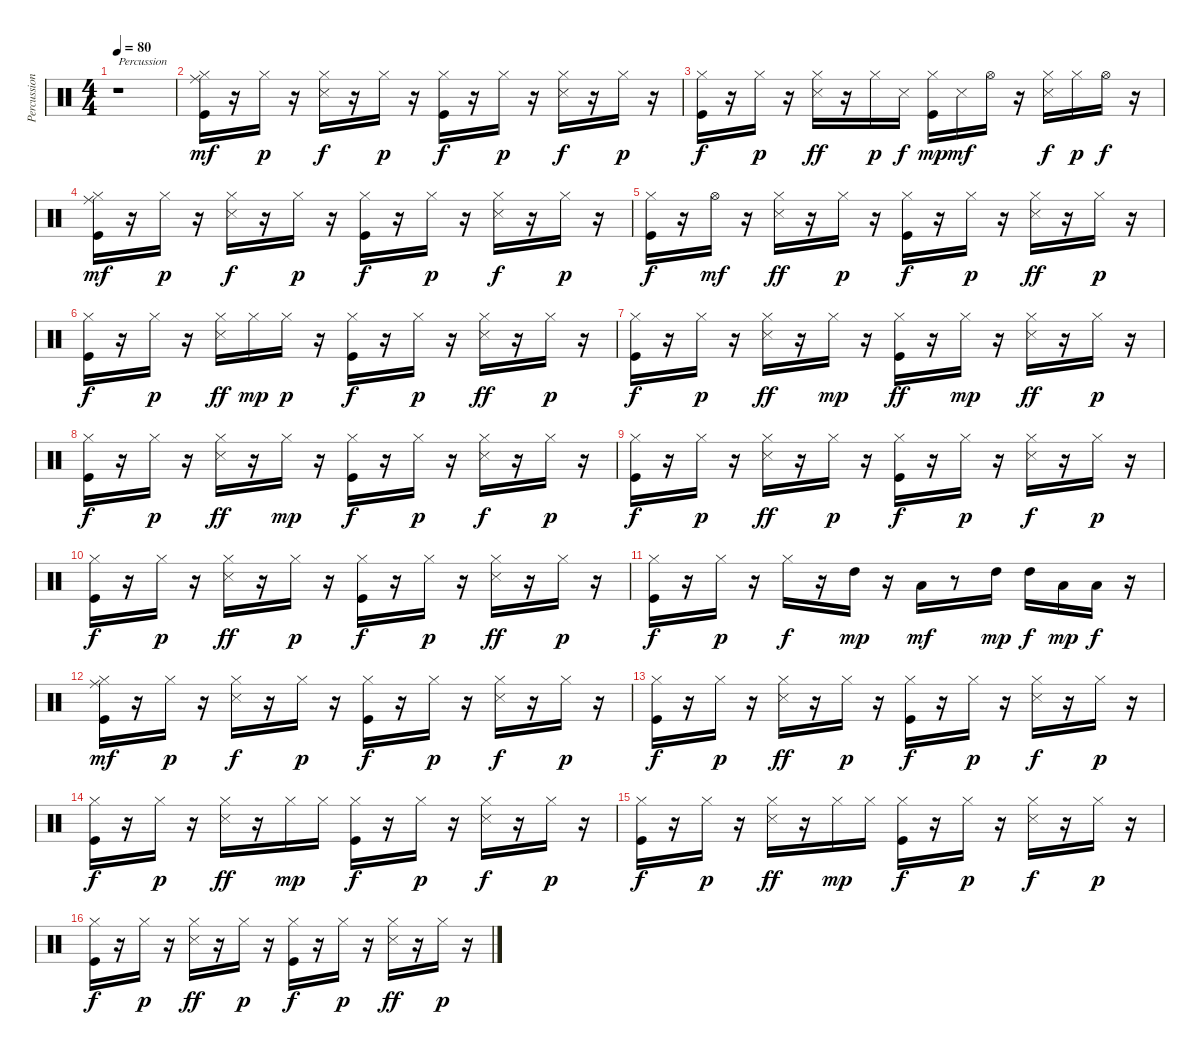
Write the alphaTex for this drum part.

\track ("Percussion" "Percussion") {instrument percussion}
\staff {score}
\articulation defaults
\ts (4 4)
\tempo 80
\clef neutral
\ks c
r.1{txt "Percussion" dy mf} |
("Kick (hit)" "Hi-Hat (closed)" "Ride (middle)").16 r.16 "Hi-Hat (closed)".16{dy p} r.16 ("Hi-Hat (closed)" "Snare (side stick) 3").16{dy f} r.16 "Hi-Hat (closed)".16{dy p} r.16 ("Kick (hit)" "Hi-Hat (closed)").16{dy f} r.16 "Hi-Hat (closed)".16{dy p} r.16 ("Hi-Hat (closed)" "Snare (side stick) 3").16{dy f} r.16 "Hi-Hat (closed)".16{dy p} r.16 |
("Kick (hit)" "Hi-Hat (closed)").16{dy f} r.16 "Hi-Hat (closed)".16{dy p} r.16 ("Hi-Hat (closed)" "Snare (side stick) 3").16{dy ff} r.16 "Hi-Hat (closed)".16{dy p} "Snare (side stick) 3".16{dy f} ("Kick (hit)" "Hi-Hat (closed)").16{dy mp} "Snare (side stick) 3".16{dy mf} "Hi-Hat (open)".16 r.16 ("Hi-Hat (closed)" "Snare (side stick) 3").16{dy f} "Hi-Hat (closed)".16{dy p} "Hi-Hat (open)".16{dy f} r.16 |
("Kick (hit)" "Hi-Hat (closed)" "Ride (middle)").16{dy mf} r.16 "Hi-Hat (closed)".16{dy p} r.16 ("Hi-Hat (closed)" "Snare (side stick) 3").16{dy f} r.16 "Hi-Hat (closed)".16{dy p} r.16 ("Kick (hit)" "Hi-Hat (closed)").16{dy f} r.16 "Hi-Hat (closed)".16{dy p} r.16 ("Hi-Hat (closed)" "Snare (side stick) 3").16{dy f} r.16 "Hi-Hat (closed)".16{dy p} r.16 |
("Kick (hit)" "Hi-Hat (closed)").16{dy f} r.16 "Hi-Hat (open)".16{dy mf} r.16 ("Hi-Hat (closed)" "Snare (side stick) 3").16{dy ff} r.16 "Hi-Hat (closed)".16{dy p} r.16 ("Kick (hit)" "Hi-Hat (closed)").16{dy f} r.16 "Hi-Hat (closed)".16{dy p} r.16 ("Hi-Hat (closed)" "Snare (side stick) 3").16{dy ff} r.16 "Hi-Hat (closed)".16{dy p} r.16 |
("Kick (hit)" "Hi-Hat (closed)").16{dy f} r.16 "Hi-Hat (closed)".16{dy p} r.16 ("Hi-Hat (closed)" "Snare (side stick) 3").16{dy ff} "Hi-Hat (closed)".16{dy mp} "Hi-Hat (closed)".16{dy p} r.16 ("Kick (hit)" "Hi-Hat (closed)").16{dy f} r.16 "Hi-Hat (closed)".16{dy p} r.16 ("Hi-Hat (closed)" "Snare (side stick) 3").16{dy ff} r.16 "Hi-Hat (closed)".16{dy p} r.16 |
("Kick (hit)" "Hi-Hat (closed)").16{dy f} r.16 "Hi-Hat (closed)".16{dy p} r.16 ("Hi-Hat (closed)" "Snare (side stick) 3").16{dy ff} r.16 "Hi-Hat (closed)".16{dy mp} r.16 ("Kick (hit)" "Hi-Hat (closed)").16{dy ff} r.16 "Hi-Hat (closed)".16{dy mp} r.16 ("Hi-Hat (closed)" "Snare (side stick) 3").16{dy ff} r.16 "Hi-Hat (closed)".16{dy p} r.16 |
("Kick (hit)" "Hi-Hat (closed)").16{dy f} r.16 "Hi-Hat (closed)".16{dy p} r.16 ("Hi-Hat (closed)" "Snare (side stick) 3").16{dy ff} r.16 "Hi-Hat (closed)".16{dy mp} r.16 ("Kick (hit)" "Hi-Hat (closed)").16{dy f} r.16 "Hi-Hat (closed)".16{dy p} r.16 ("Hi-Hat (closed)" "Snare (side stick) 3").16{dy f} r.16 "Hi-Hat (closed)".16{dy p} r.16 |
("Kick (hit)" "Hi-Hat (closed)").16{dy f} r.16 "Hi-Hat (closed)".16{dy p} r.16 ("Hi-Hat (closed)" "Snare (side stick) 3").16{dy ff} r.16 "Hi-Hat (closed)".16{dy p} r.16 ("Kick (hit)" "Hi-Hat (closed)").16{dy f} r.16 "Hi-Hat (closed)".16{dy p} r.16 ("Hi-Hat (closed)" "Snare (side stick) 3").16{dy f} r.16 "Hi-Hat (closed)".16{dy p} r.16 |
("Kick (hit)" "Hi-Hat (closed)").16{dy f} r.16 "Hi-Hat (closed)".16{dy p} r.16 ("Hi-Hat (closed)" "Snare (side stick) 3").16{dy ff} r.16 "Hi-Hat (closed)".16{dy p} r.16 ("Kick (hit)" "Hi-Hat (closed)").16{dy f} r.16 "Hi-Hat (closed)".16{dy p} r.16 ("Hi-Hat (closed)" "Snare (side stick) 3").16{dy ff} r.16 "Hi-Hat (closed)".16{dy p} r.16 |
("Kick (hit)" "Hi-Hat (closed)").16{dy f} r.16 "Hi-Hat (closed)".16{dy p} r.16 "Hi-Hat (closed)".16{dy f} r.16 "High Tom (hit)".16{dy mp} r.16 "Low Tom (hit)".16{dy mf} r.8 "High Tom (hit)".16{dy mp} "High Tom (hit)".16{dy f} "Low Tom (hit)".16{dy mp} "Low Tom (hit)".16{dy f} r.16 |
("Kick (hit)" "Hi-Hat (closed)" "Ride (middle)").16{dy mf} r.16 "Hi-Hat (closed)".16{dy p} r.16 ("Hi-Hat (closed)" "Snare (side stick) 3").16{dy f} r.16 "Hi-Hat (closed)".16{dy p} r.16 ("Kick (hit)" "Hi-Hat (closed)").16{dy f} r.16 "Hi-Hat (closed)".16{dy p} r.16 ("Hi-Hat (closed)" "Snare (side stick) 3").16{dy f} r.16 "Hi-Hat (closed)".16{dy p} r.16 |
("Kick (hit)" "Hi-Hat (closed)").16{dy f} r.16 "Hi-Hat (closed)".16{dy p} r.16 ("Hi-Hat (closed)" "Snare (side stick) 3").16{dy ff} r.16 "Hi-Hat (closed)".16{dy p} r.16 ("Kick (hit)" "Hi-Hat (closed)").16{dy f} r.16 "Hi-Hat (closed)".16{dy p} r.16 ("Hi-Hat (closed)" "Snare (side stick) 3").16{dy f} r.16 "Hi-Hat (closed)".16{dy p} r.16 |
("Kick (hit)" "Hi-Hat (closed)").16{dy f} r.16 "Hi-Hat (closed)".16{dy p} r.16 ("Hi-Hat (closed)" "Snare (side stick) 3").16{dy ff} r.16 "Hi-Hat (closed)".16{dy mp} "Hi-Hat (closed)".16 ("Kick (hit)" "Hi-Hat (closed)").16{dy f} r.16 "Hi-Hat (closed)".16{dy p} r.16 ("Hi-Hat (closed)" "Snare (side stick) 3").16{dy f} r.16 "Hi-Hat (closed)".16{dy p} r.16 |
("Kick (hit)" "Hi-Hat (closed)").16{dy f} r.16 "Hi-Hat (closed)".16{dy p} r.16 ("Hi-Hat (closed)" "Snare (side stick) 3").16{dy ff} r.16 "Hi-Hat (closed)".16{dy mp} "Hi-Hat (closed)".16 ("Kick (hit)" "Hi-Hat (closed)").16{dy f} r.16 "Hi-Hat (closed)".16{dy p} r.16 ("Hi-Hat (closed)" "Snare (side stick) 3").16{dy f} r.16 "Hi-Hat (closed)".16{dy p} r.16 |
("Kick (hit)" "Hi-Hat (closed)").16{dy f} r.16 "Hi-Hat (closed)".16{dy p} r.16 ("Hi-Hat (closed)" "Snare (side stick) 3").16{dy ff} r.16 "Hi-Hat (closed)".16{dy p} r.16 ("Kick (hit)" "Hi-Hat (closed)").16{dy f} r.16 "Hi-Hat (closed)".16{dy p} r.16 ("Hi-Hat (closed)" "Snare (side stick) 3").16{dy ff} r.16 "Hi-Hat (closed)".16{dy p} r.16
